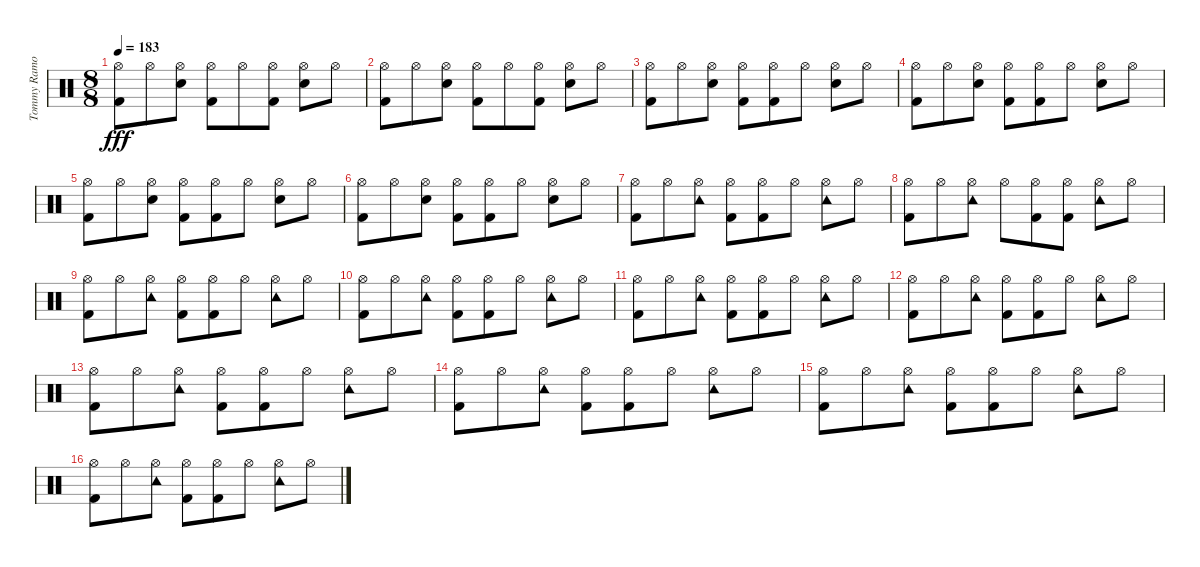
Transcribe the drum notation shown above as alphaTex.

\track ("Tommy Ramone - Drums" "Tommy Ramo") {instrument percussion}
\staff {score}
\articulation defaults
\ts (8 8)
\tempo 183
\clef neutral
\ks c
("Kick (hit) 2" "Hi-Hat (open)").8{dy fff} "Hi-Hat (open)".8 ("Snare (hit) 2" "Hi-Hat (open)").8 ("Kick (hit) 2" "Hi-Hat (open)").8 "Hi-Hat (open)".8 ("Kick (hit) 2" "Hi-Hat (open)").8 ("Snare (hit) 2" "Hi-Hat (open)").8 "Hi-Hat (open)".8 |
("Kick (hit) 2" "Hi-Hat (open)").8 "Hi-Hat (open)".8 ("Snare (hit) 2" "Hi-Hat (open)").8 ("Kick (hit) 2" "Hi-Hat (open)").8 "Hi-Hat (open)".8 ("Kick (hit) 2" "Hi-Hat (open)").8 ("Snare (hit) 2" "Hi-Hat (open)").8 "Hi-Hat (open)".8 |
("Kick (hit) 2" "Hi-Hat (open)").8 "Hi-Hat (open)".8 ("Snare (hit) 2" "Hi-Hat (open)").8 ("Kick (hit) 2" "Hi-Hat (open)").8 ("Kick (hit) 2" "Hi-Hat (open)").8 "Hi-Hat (open)".8 ("Snare (hit) 2" "Hi-Hat (open)").8 "Hi-Hat (open)".8 |
("Kick (hit) 2" "Hi-Hat (open)").8 "Hi-Hat (open)".8 ("Snare (hit) 2" "Hi-Hat (open)").8 ("Kick (hit) 2" "Hi-Hat (open)").8 ("Kick (hit) 2" "Hi-Hat (open)").8 "Hi-Hat (open)".8 ("Snare (hit) 2" "Hi-Hat (open)").8 "Hi-Hat (open)".8 |
("Kick (hit) 2" "Hi-Hat (open)").8 "Hi-Hat (open)".8 ("Snare (hit) 2" "Hi-Hat (open)").8 ("Kick (hit) 2" "Hi-Hat (open)").8 ("Kick (hit) 2" "Hi-Hat (open)").8 "Hi-Hat (open)".8 ("Snare (hit) 2" "Hi-Hat (open)").8 "Hi-Hat (open)".8 |
("Kick (hit) 2" "Hi-Hat (open)").8 "Hi-Hat (open)".8 ("Snare (hit) 2" "Hi-Hat (open)").8 ("Kick (hit) 2" "Hi-Hat (open)").8 ("Kick (hit) 2" "Hi-Hat (open)").8 "Hi-Hat (open)".8 ("Snare (hit) 2" "Hi-Hat (open)").8 "Hi-Hat (open)".8 |
("Kick (hit) 2" "Hi-Hat (open)").8 "Hi-Hat (open)".8 ("Tambourine (hit)" "Hi-Hat (open)").8 ("Kick (hit) 2" "Hi-Hat (open)").8 ("Kick (hit) 2" "Hi-Hat (open)").8 "Hi-Hat (open)".8 ("Tambourine (hit)" "Hi-Hat (open)").8 "Hi-Hat (open)".8 |
("Kick (hit) 2" "Hi-Hat (open)").8 "Hi-Hat (open)".8 ("Tambourine (hit)" "Hi-Hat (open)").8 "Hi-Hat (open)".8 ("Kick (hit) 2" "Hi-Hat (open)").8 ("Kick (hit) 2" "Hi-Hat (open)").8 ("Tambourine (hit)" "Hi-Hat (open)").8 "Hi-Hat (open)".8 |
("Kick (hit) 2" "Hi-Hat (open)").8 "Hi-Hat (open)".8 ("Tambourine (hit)" "Hi-Hat (open)").8 ("Kick (hit) 2" "Hi-Hat (open)").8 ("Kick (hit) 2" "Hi-Hat (open)").8 "Hi-Hat (open)".8 ("Tambourine (hit)" "Hi-Hat (open)").8 "Hi-Hat (open)".8 |
("Kick (hit) 2" "Hi-Hat (open)").8 "Hi-Hat (open)".8 ("Tambourine (hit)" "Hi-Hat (open)").8 ("Kick (hit) 2" "Hi-Hat (open)").8 ("Kick (hit) 2" "Hi-Hat (open)").8 "Hi-Hat (open)".8 ("Tambourine (hit)" "Hi-Hat (open)").8 "Hi-Hat (open)".8 |
("Kick (hit) 2" "Hi-Hat (open)").8 "Hi-Hat (open)".8 ("Tambourine (hit)" "Hi-Hat (open)").8 ("Kick (hit) 2" "Hi-Hat (open)").8 ("Kick (hit) 2" "Hi-Hat (open)").8 "Hi-Hat (open)".8 ("Tambourine (hit)" "Hi-Hat (open)").8 "Hi-Hat (open)".8 |
("Kick (hit) 2" "Hi-Hat (open)").8 "Hi-Hat (open)".8 ("Tambourine (hit)" "Hi-Hat (open)").8 ("Kick (hit) 2" "Hi-Hat (open)").8 ("Kick (hit) 2" "Hi-Hat (open)").8 "Hi-Hat (open)".8 ("Tambourine (hit)" "Hi-Hat (open)").8 "Hi-Hat (open)".8 |
("Kick (hit) 2" "Hi-Hat (open)").8 "Hi-Hat (open)".8 ("Tambourine (hit)" "Hi-Hat (open)").8 ("Kick (hit) 2" "Hi-Hat (open)").8 ("Kick (hit) 2" "Hi-Hat (open)").8 "Hi-Hat (open)".8 ("Tambourine (hit)" "Hi-Hat (open)").8 "Hi-Hat (open)".8 |
("Kick (hit) 2" "Hi-Hat (open)").8 "Hi-Hat (open)".8 ("Tambourine (hit)" "Hi-Hat (open)").8 ("Kick (hit) 2" "Hi-Hat (open)").8 ("Kick (hit) 2" "Hi-Hat (open)").8 "Hi-Hat (open)".8 ("Tambourine (hit)" "Hi-Hat (open)").8 "Hi-Hat (open)".8 |
("Kick (hit) 2" "Hi-Hat (open)").8 "Hi-Hat (open)".8 ("Tambourine (hit)" "Hi-Hat (open)").8 ("Kick (hit) 2" "Hi-Hat (open)").8 ("Kick (hit) 2" "Hi-Hat (open)").8 "Hi-Hat (open)".8 ("Tambourine (hit)" "Hi-Hat (open)").8 "Hi-Hat (open)".8 |
("Kick (hit) 2" "Hi-Hat (open)").8 "Hi-Hat (open)".8 ("Tambourine (hit)" "Hi-Hat (open)").8 ("Kick (hit) 2" "Hi-Hat (open)").8 ("Kick (hit) 2" "Hi-Hat (open)").8 "Hi-Hat (open)".8 ("Tambourine (hit)" "Hi-Hat (open)").8 "Hi-Hat (open)".8
